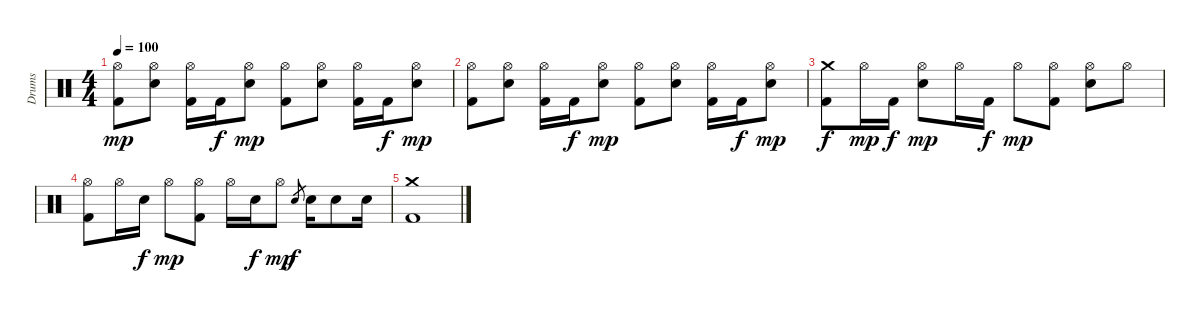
\track ("Drums" "Drums") {instrument percussion}
\staff {score}
\articulation defaults
\ts (4 4)
\tempo 100
\clef neutral
\ks c
("Hi-Hat (open)" "Kick (hit) 2").8{dy mp} ("Hi-Hat (open)" "Snare (hit) 2").8 ("Hi-Hat (open)" "Kick (hit) 2").16 "Kick (hit) 2".16{dy f} ("Hi-Hat (open)" "Snare (hit) 2").8{dy mp} ("Hi-Hat (open)" "Kick (hit) 2").8 ("Hi-Hat (open)" "Snare (hit) 2").8 ("Hi-Hat (open)" "Kick (hit) 2").16 "Kick (hit) 2".16{dy f} ("Hi-Hat (open)" "Snare (hit) 2").8{dy mp} |
("Hi-Hat (open)" "Kick (hit) 2").8 ("Hi-Hat (open)" "Snare (hit) 2").8 ("Hi-Hat (open)" "Kick (hit) 2").16 "Kick (hit) 2".16{dy f} ("Hi-Hat (open)" "Snare (hit) 2").8{dy mp} ("Hi-Hat (open)" "Kick (hit) 2").8 ("Hi-Hat (open)" "Snare (hit) 2").8 ("Hi-Hat (open)" "Kick (hit) 2").16 "Kick (hit) 2".16{dy f} ("Hi-Hat (open)" "Snare (hit) 2").8{dy mp} |
("Crash medium (hit)" "Kick (hit) 2").8{dy f} "Hi-Hat (open)".16{dy mp} "Kick (hit) 2".16{dy f} ("Hi-Hat (open)" "Snare (hit) 2").8{dy mp} "Hi-Hat (open)".16 "Kick (hit) 2".16{dy f} "Hi-Hat (open)".8{dy mp} ("Hi-Hat (open)" "Kick (hit) 2").8 ("Hi-Hat (open)" "Snare (hit) 2").8 "Hi-Hat (open)".8 |
("Hi-Hat (open)" "Kick (hit) 2").8 "Hi-Hat (open)".16 "Snare (hit) 2".16{dy f} "Hi-Hat (open)".8{dy mp} ("Hi-Hat (open)" "Kick (hit) 2").8 "Hi-Hat (open)".16 "Snare (hit) 2".16{dy f} "Hi-Hat (open)".8{dy mp} "Snare (hit) 2".8{gr dy f} "Snare (hit) 2".16 "Snare (hit) 2".8 "Snare (hit) 2".16 |
("Crash medium (hit)" "Kick (hit) 2").1
